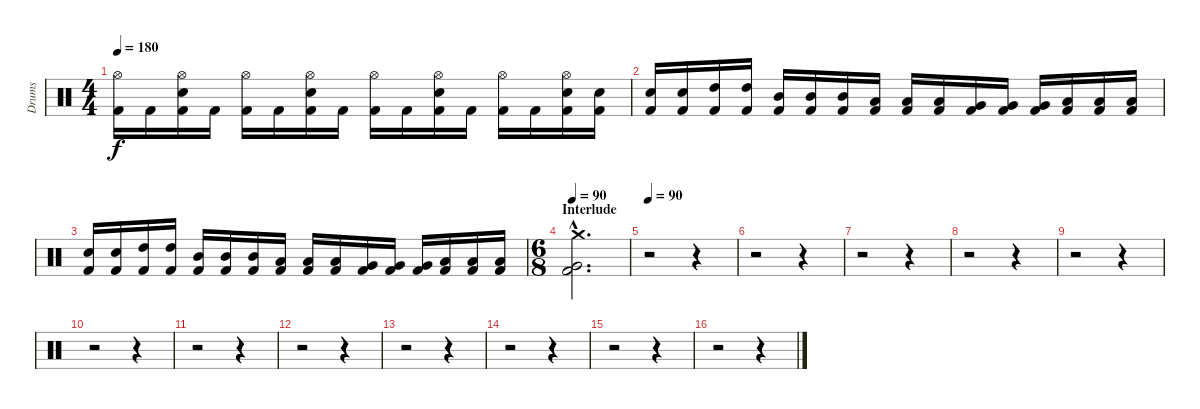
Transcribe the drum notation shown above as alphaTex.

\track ("Drums" "Drums") {instrument percussion}
\staff {score}
\articulation defaults
\ts (4 4)
\tempo 180
\clef neutral
\ks c
("Kick (hit) 2" "Hi-Hat (open)").16{dy f} "Kick (hit) 2".16 ("Kick (hit) 2" "Electric Snare (hit)" "Hi-Hat (open)").16 "Kick (hit) 2".16 ("Kick (hit) 2" "Hi-Hat (open)").16 "Kick (hit) 2".16 ("Kick (hit) 2" "Electric Snare (hit)" "Hi-Hat (open)").16 "Kick (hit) 2".16 ("Kick (hit) 2" "Hi-Hat (open)").16 "Kick (hit) 2".16 ("Kick (hit) 2" "Electric Snare (hit)" "Hi-Hat (open)").16 "Kick (hit) 2".16 ("Kick (hit) 2" "Hi-Hat (open)").16 "Kick (hit) 2".16 ("Kick (hit) 2" "Electric Snare (hit)" "Hi-Hat (open)").16 ("Kick (hit) 2" "Electric Snare (hit)").16 |
("Kick (hit) 2" "Electric Snare (hit)").16 ("Kick (hit) 2" "Electric Snare (hit)").16 ("Kick (hit) 2" "High Tom (hit)").16 ("Kick (hit) 2" "High Tom (hit)").16 ("Kick (hit) 2" "Mid Tom (hit)").16 ("Kick (hit) 2" "Mid Tom (hit)").16 ("Kick (hit) 2" "Mid Tom (hit)").16 ("Kick (hit) 2" "Low Tom (hit)").16 ("Kick (hit) 2" "Low Tom (hit)").16 ("Kick (hit) 2" "Low Tom (hit)").16 ("Kick (hit) 2" "Very Low Tom (hit)").16 ("Kick (hit) 2" "Very Low Tom (hit)").16 ("Kick (hit) 2" "Very Low Tom (hit)").16 ("Kick (hit) 2" "Low Floor Tom (hit)").16 ("Kick (hit) 2" "Low Floor Tom (hit)").16 ("Kick (hit) 2" "Low Floor Tom (hit)").16 |
("Kick (hit) 2" "Electric Snare (hit)").16 ("Kick (hit) 2" "Electric Snare (hit)").16 ("Kick (hit) 2" "High Tom (hit)").16 ("Kick (hit) 2" "High Tom (hit)").16 ("Kick (hit) 2" "Mid Tom (hit)").16 ("Kick (hit) 2" "Mid Tom (hit)").16 ("Kick (hit) 2" "Mid Tom (hit)").16 ("Kick (hit) 2" "Low Tom (hit)").16 ("Kick (hit) 2" "Low Tom (hit)").16 ("Kick (hit) 2" "Low Tom (hit)").16 ("Kick (hit) 2" "Very Low Tom (hit)").16 ("Kick (hit) 2" "Very Low Tom (hit)").16 ("Kick (hit) 2" "Very Low Tom (hit)").16 ("Kick (hit) 2" "Low Floor Tom (hit)").16 ("Kick (hit) 2" "Low Floor Tom (hit)").16 ("Kick (hit) 2" "Low Floor Tom (hit)").16 |
\ts (6 8)
\section ("" "Interlude")
\tempo 90
("Kick (hit) 2"{hac} "Very Low Tom (hit)"{hac} "Crash medium (hit)"{hac}).2{d} |
\tempo 90
r.2 r.4 |
r.2 r.4 |
r.2 r.4 |
r.2 r.4 |
r.2 r.4 |
r.2 r.4 |
r.2 r.4 |
r.2 r.4 |
r.2 r.4 |
r.2 r.4 |
r.2 r.4 |
r.2 r.4
